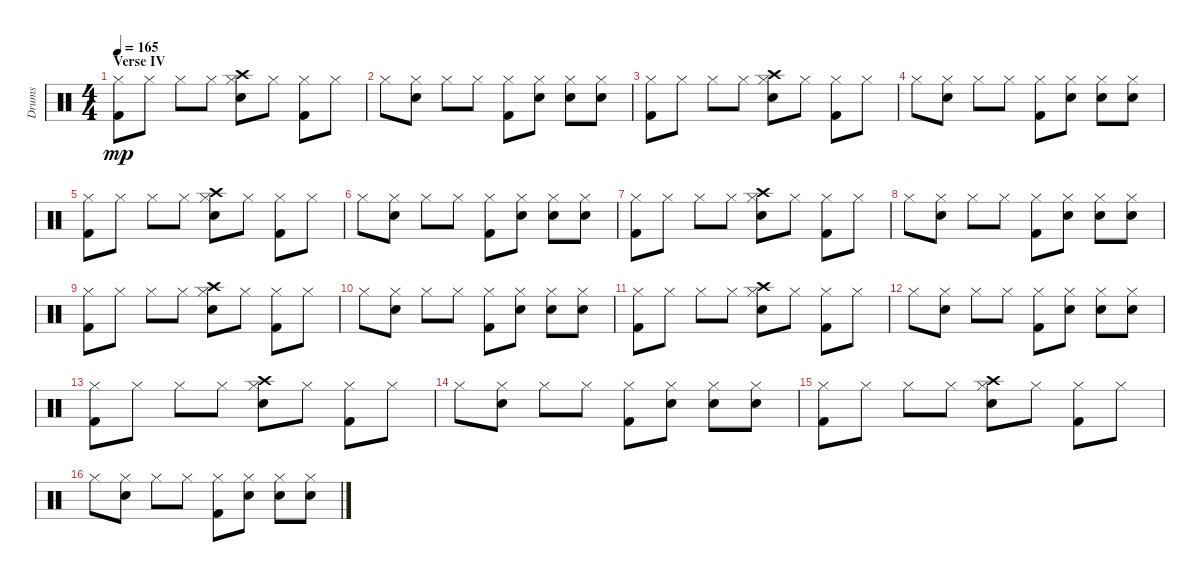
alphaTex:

\track ("Drums" "Drums") {instrument percussion}
\staff {score}
\articulation defaults
\ts (4 4)
\section ("" "Verse IV")
\tempo 165
\clef neutral
\ks c
("Hi-Hat (closed)" "Kick (hit) 2").8{dy mp} "Hi-Hat (closed)".8 "Hi-Hat (closed)".8 "Hi-Hat (closed)".8 ("Hi-Hat (closed)" "Snare (hit) 2" "Crash high (hit)").8 "Hi-Hat (closed)".8 ("Hi-Hat (closed)" "Kick (hit) 2").8 "Hi-Hat (closed)".8 |
"Hi-Hat (closed)".8 ("Hi-Hat (closed)" "Snare (hit) 2").8 "Hi-Hat (closed)".8 "Hi-Hat (closed)".8 ("Hi-Hat (closed)" "Kick (hit) 2").8 ("Hi-Hat (closed)" "Electric Snare (hit)").8 ("Hi-Hat (closed)" "Electric Snare (hit)").8 ("Hi-Hat (closed)" "Snare (hit) 2").8 |
("Hi-Hat (closed)" "Kick (hit) 2").8 "Hi-Hat (closed)".8 "Hi-Hat (closed)".8 "Hi-Hat (closed)".8 ("Hi-Hat (closed)" "Snare (hit) 2" "Crash high (hit)").8 "Hi-Hat (closed)".8 ("Hi-Hat (closed)" "Kick (hit) 2").8 "Hi-Hat (closed)".8 |
"Hi-Hat (closed)".8 ("Hi-Hat (closed)" "Snare (hit) 2").8 "Hi-Hat (closed)".8 "Hi-Hat (closed)".8 ("Hi-Hat (closed)" "Kick (hit) 2").8 ("Hi-Hat (closed)" "Electric Snare (hit)").8 ("Hi-Hat (closed)" "Electric Snare (hit)").8 ("Hi-Hat (closed)" "Snare (hit) 2").8 |
("Hi-Hat (closed)" "Kick (hit) 2").8 "Hi-Hat (closed)".8 "Hi-Hat (closed)".8 "Hi-Hat (closed)".8 ("Hi-Hat (closed)" "Snare (hit) 2" "Crash high (hit)").8 "Hi-Hat (closed)".8 ("Hi-Hat (closed)" "Kick (hit) 2").8 "Hi-Hat (closed)".8 |
"Hi-Hat (closed)".8 ("Hi-Hat (closed)" "Snare (hit) 2").8 "Hi-Hat (closed)".8 "Hi-Hat (closed)".8 ("Hi-Hat (closed)" "Kick (hit) 2").8 ("Hi-Hat (closed)" "Electric Snare (hit)").8 ("Hi-Hat (closed)" "Electric Snare (hit)").8 ("Hi-Hat (closed)" "Snare (hit) 2").8 |
("Hi-Hat (closed)" "Kick (hit) 2").8 "Hi-Hat (closed)".8 "Hi-Hat (closed)".8 "Hi-Hat (closed)".8 ("Hi-Hat (closed)" "Snare (hit) 2" "Crash high (hit)").8 "Hi-Hat (closed)".8 ("Hi-Hat (closed)" "Kick (hit) 2").8 "Hi-Hat (closed)".8 |
"Hi-Hat (closed)".8 ("Hi-Hat (closed)" "Snare (hit) 2").8 "Hi-Hat (closed)".8 "Hi-Hat (closed)".8 ("Hi-Hat (closed)" "Kick (hit) 2").8 ("Hi-Hat (closed)" "Electric Snare (hit)").8 ("Hi-Hat (closed)" "Electric Snare (hit)").8 ("Hi-Hat (closed)" "Snare (hit) 2").8 |
("Hi-Hat (closed)" "Kick (hit) 2").8 "Hi-Hat (closed)".8 "Hi-Hat (closed)".8 "Hi-Hat (closed)".8 ("Hi-Hat (closed)" "Snare (hit) 2" "Crash high (hit)").8 "Hi-Hat (closed)".8 ("Hi-Hat (closed)" "Kick (hit) 2").8 "Hi-Hat (closed)".8 |
"Hi-Hat (closed)".8 ("Hi-Hat (closed)" "Snare (hit) 2").8 "Hi-Hat (closed)".8 "Hi-Hat (closed)".8 ("Hi-Hat (closed)" "Kick (hit) 2").8 ("Hi-Hat (closed)" "Electric Snare (hit)").8 ("Hi-Hat (closed)" "Electric Snare (hit)").8 ("Hi-Hat (closed)" "Snare (hit) 2").8 |
("Hi-Hat (closed)" "Kick (hit) 2").8 "Hi-Hat (closed)".8 "Hi-Hat (closed)".8 "Hi-Hat (closed)".8 ("Hi-Hat (closed)" "Snare (hit) 2" "Crash high (hit)").8 "Hi-Hat (closed)".8 ("Hi-Hat (closed)" "Kick (hit) 2").8 "Hi-Hat (closed)".8 |
"Hi-Hat (closed)".8 ("Hi-Hat (closed)" "Snare (hit) 2").8 "Hi-Hat (closed)".8 "Hi-Hat (closed)".8 ("Hi-Hat (closed)" "Kick (hit) 2").8 ("Hi-Hat (closed)" "Electric Snare (hit)").8 ("Hi-Hat (closed)" "Electric Snare (hit)").8 ("Hi-Hat (closed)" "Snare (hit) 2").8 |
("Hi-Hat (closed)" "Kick (hit) 2").8 "Hi-Hat (closed)".8 "Hi-Hat (closed)".8 "Hi-Hat (closed)".8 ("Hi-Hat (closed)" "Snare (hit) 2" "Crash high (hit)").8 "Hi-Hat (closed)".8 ("Hi-Hat (closed)" "Kick (hit) 2").8 "Hi-Hat (closed)".8 |
"Hi-Hat (closed)".8 ("Hi-Hat (closed)" "Snare (hit) 2").8 "Hi-Hat (closed)".8 "Hi-Hat (closed)".8 ("Hi-Hat (closed)" "Kick (hit) 2").8 ("Hi-Hat (closed)" "Electric Snare (hit)").8 ("Hi-Hat (closed)" "Electric Snare (hit)").8 ("Hi-Hat (closed)" "Snare (hit) 2").8 |
("Hi-Hat (closed)" "Kick (hit) 2").8 "Hi-Hat (closed)".8 "Hi-Hat (closed)".8 "Hi-Hat (closed)".8 ("Hi-Hat (closed)" "Snare (hit) 2" "Crash high (hit)").8 "Hi-Hat (closed)".8 ("Hi-Hat (closed)" "Kick (hit) 2").8 "Hi-Hat (closed)".8 |
"Hi-Hat (closed)".8 ("Hi-Hat (closed)" "Snare (hit) 2").8 "Hi-Hat (closed)".8 "Hi-Hat (closed)".8 ("Hi-Hat (closed)" "Kick (hit) 2").8 ("Hi-Hat (closed)" "Electric Snare (hit)").8 ("Hi-Hat (closed)" "Electric Snare (hit)").8 ("Hi-Hat (closed)" "Snare (hit) 2").8
